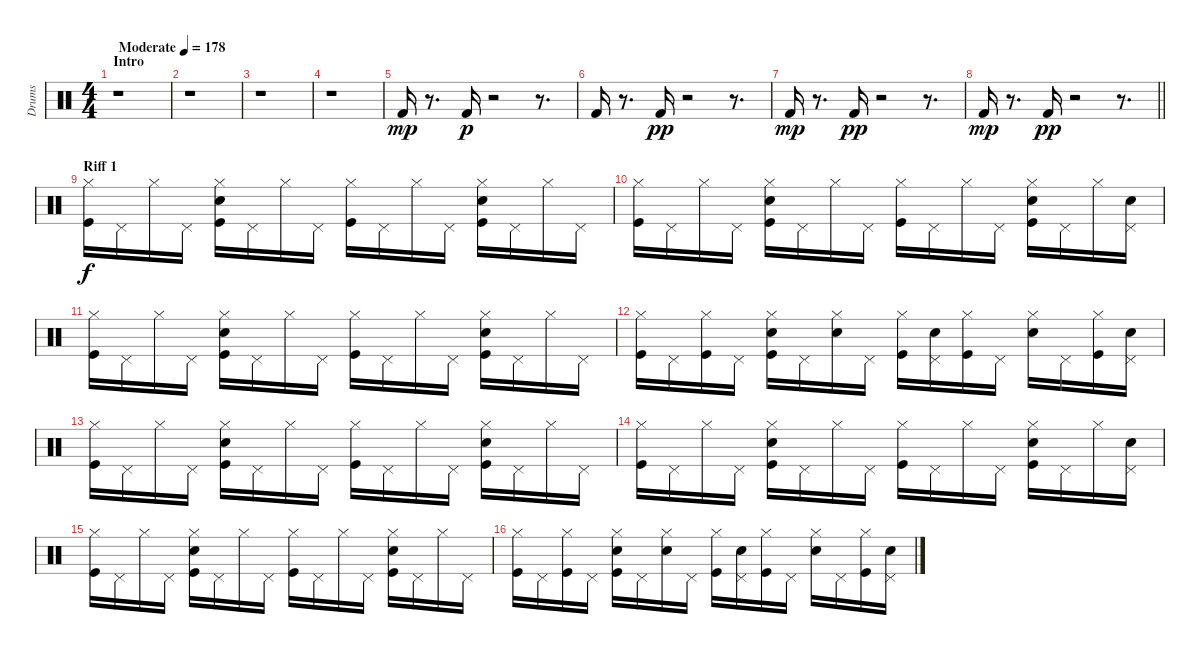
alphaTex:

\track ("Drums" "Drums") {instrument percussion}
\staff {score}
\articulation defaults
\ts (4 4)
\section ("" "Intro")
\tempo (178 "Moderate")
\clef neutral
\ks c
r.1{dy mp} |
r.1 |
r.1 |
r.1 |
"Kick (hit) 2".16 r.8{d} "Kick (hit) 2".16{dy p} r.2 r.8{d} |
"Kick (hit) 2".16 r.8{d} "Kick (hit) 2".16{dy pp} r.2 r.8{d} |
"Kick (hit) 2".16{dy mp} r.8{d} "Kick (hit) 2".16{dy pp} r.2 r.8{d} |
\barLineRight lightlight "Kick (hit) 2".16{dy mp}
r.8{d} "Kick (hit) 2".16{dy pp} r.2 r.8{d} |
\section ("" "Riff 1")
("Kick (hit)" "Hi-Hat (closed)").16{dy f} "Pedal Hi-Hat (hit)".16 "Hi-Hat (closed)".16 "Pedal Hi-Hat (hit)".16 ("Kick (hit)" "Electric Snare (hit)" "Hi-Hat (closed)").16 "Pedal Hi-Hat (hit)".16 "Hi-Hat (closed)".16 "Pedal Hi-Hat (hit)".16 ("Kick (hit)" "Hi-Hat (closed)").16 "Pedal Hi-Hat (hit)".16 "Hi-Hat (closed)".16 "Pedal Hi-Hat (hit)".16 ("Kick (hit)" "Electric Snare (hit)" "Hi-Hat (closed)").16 "Pedal Hi-Hat (hit)".16 "Hi-Hat (closed)".16 "Pedal Hi-Hat (hit)".16 |
("Kick (hit)" "Hi-Hat (closed)").16 "Pedal Hi-Hat (hit)".16 "Hi-Hat (closed)".16 "Pedal Hi-Hat (hit)".16 ("Kick (hit)" "Electric Snare (hit)" "Hi-Hat (closed)").16 "Pedal Hi-Hat (hit)".16 "Hi-Hat (closed)".16 "Pedal Hi-Hat (hit)".16 ("Kick (hit)" "Hi-Hat (closed)").16 "Pedal Hi-Hat (hit)".16 "Hi-Hat (closed)".16 "Pedal Hi-Hat (hit)".16 ("Kick (hit)" "Electric Snare (hit)" "Hi-Hat (closed)").16 "Pedal Hi-Hat (hit)".16 "Hi-Hat (closed)".16 ("Electric Snare (hit)" "Pedal Hi-Hat (hit)").16 |
("Kick (hit)" "Hi-Hat (closed)").16 "Pedal Hi-Hat (hit)".16 "Hi-Hat (closed)".16 "Pedal Hi-Hat (hit)".16 ("Kick (hit)" "Electric Snare (hit)" "Hi-Hat (closed)").16 "Pedal Hi-Hat (hit)".16 "Hi-Hat (closed)".16 "Pedal Hi-Hat (hit)".16 ("Kick (hit)" "Hi-Hat (closed)").16 "Pedal Hi-Hat (hit)".16 "Hi-Hat (closed)".16 "Pedal Hi-Hat (hit)".16 ("Kick (hit)" "Electric Snare (hit)" "Hi-Hat (closed)").16 "Pedal Hi-Hat (hit)".16 "Hi-Hat (closed)".16 "Pedal Hi-Hat (hit)".16 |
("Kick (hit)" "Hi-Hat (closed)").16 "Pedal Hi-Hat (hit)".16 ("Kick (hit)" "Hi-Hat (closed)").16 "Pedal Hi-Hat (hit)".16 ("Kick (hit)" "Electric Snare (hit)" "Hi-Hat (closed)").16 "Pedal Hi-Hat (hit)".16 ("Electric Snare (hit)" "Hi-Hat (closed)").16 "Pedal Hi-Hat (hit)".16 ("Kick (hit)" "Hi-Hat (closed)").16 ("Electric Snare (hit)" "Pedal Hi-Hat (hit)").16 ("Kick (hit)" "Hi-Hat (closed)").16 "Pedal Hi-Hat (hit)".16 ("Electric Snare (hit)" "Hi-Hat (closed)").16 "Pedal Hi-Hat (hit)".16 ("Kick (hit)" "Hi-Hat (closed)").16 ("Electric Snare (hit)" "Pedal Hi-Hat (hit)").16 |
("Kick (hit)" "Hi-Hat (closed)").16 "Pedal Hi-Hat (hit)".16 "Hi-Hat (closed)".16 "Pedal Hi-Hat (hit)".16 ("Kick (hit)" "Electric Snare (hit)" "Hi-Hat (closed)").16 "Pedal Hi-Hat (hit)".16 "Hi-Hat (closed)".16 "Pedal Hi-Hat (hit)".16 ("Kick (hit)" "Hi-Hat (closed)").16 "Pedal Hi-Hat (hit)".16 "Hi-Hat (closed)".16 "Pedal Hi-Hat (hit)".16 ("Kick (hit)" "Electric Snare (hit)" "Hi-Hat (closed)").16 "Pedal Hi-Hat (hit)".16 "Hi-Hat (closed)".16 "Pedal Hi-Hat (hit)".16 |
("Kick (hit)" "Hi-Hat (closed)").16 "Pedal Hi-Hat (hit)".16 "Hi-Hat (closed)".16 "Pedal Hi-Hat (hit)".16 ("Kick (hit)" "Electric Snare (hit)" "Hi-Hat (closed)").16 "Pedal Hi-Hat (hit)".16 "Hi-Hat (closed)".16 "Pedal Hi-Hat (hit)".16 ("Kick (hit)" "Hi-Hat (closed)").16 "Pedal Hi-Hat (hit)".16 "Hi-Hat (closed)".16 "Pedal Hi-Hat (hit)".16 ("Kick (hit)" "Electric Snare (hit)" "Hi-Hat (closed)").16 "Pedal Hi-Hat (hit)".16 "Hi-Hat (closed)".16 ("Electric Snare (hit)" "Pedal Hi-Hat (hit)").16 |
("Kick (hit)" "Hi-Hat (closed)").16 "Pedal Hi-Hat (hit)".16 "Hi-Hat (closed)".16 "Pedal Hi-Hat (hit)".16 ("Kick (hit)" "Electric Snare (hit)" "Hi-Hat (closed)").16 "Pedal Hi-Hat (hit)".16 "Hi-Hat (closed)".16 "Pedal Hi-Hat (hit)".16 ("Kick (hit)" "Hi-Hat (closed)").16 "Pedal Hi-Hat (hit)".16 "Hi-Hat (closed)".16 "Pedal Hi-Hat (hit)".16 ("Kick (hit)" "Electric Snare (hit)" "Hi-Hat (closed)").16 "Pedal Hi-Hat (hit)".16 "Hi-Hat (closed)".16 "Pedal Hi-Hat (hit)".16 |
("Kick (hit)" "Hi-Hat (closed)").16 "Pedal Hi-Hat (hit)".16 ("Kick (hit)" "Hi-Hat (closed)").16 "Pedal Hi-Hat (hit)".16 ("Kick (hit)" "Electric Snare (hit)" "Hi-Hat (closed)").16 "Pedal Hi-Hat (hit)".16 ("Electric Snare (hit)" "Hi-Hat (closed)").16 "Pedal Hi-Hat (hit)".16 ("Kick (hit)" "Hi-Hat (closed)").16 ("Electric Snare (hit)" "Pedal Hi-Hat (hit)").16 ("Kick (hit)" "Hi-Hat (closed)").16 "Pedal Hi-Hat (hit)".16 ("Electric Snare (hit)" "Hi-Hat (closed)").16 "Pedal Hi-Hat (hit)".16 ("Kick (hit)" "Hi-Hat (closed)").16 ("Electric Snare (hit)" "Pedal Hi-Hat (hit)").16
